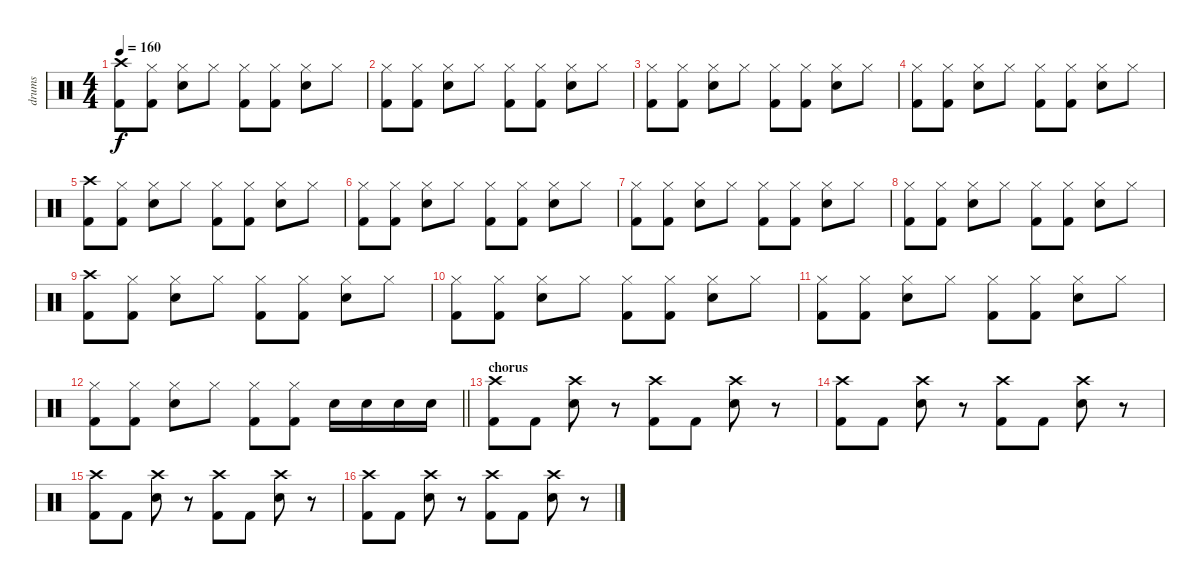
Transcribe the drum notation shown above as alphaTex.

\track ("drums" "drums") {instrument percussion}
\staff {score}
\articulation defaults
\ts (4 4)
\tempo 160
\clef neutral
\ks c
("Crash high (hit)" "Kick (hit) 2").8{dy f} ("Hi-Hat (closed)" "Kick (hit) 2").8 ("Hi-Hat (closed)" "Electric Snare (hit)").8 "Hi-Hat (closed)".8 ("Hi-Hat (closed)" "Kick (hit) 2").8 ("Hi-Hat (closed)" "Kick (hit) 2").8 ("Hi-Hat (closed)" "Electric Snare (hit)").8 "Hi-Hat (closed)".8 |
("Hi-Hat (closed)" "Kick (hit) 2").8 ("Hi-Hat (closed)" "Kick (hit) 2").8 ("Hi-Hat (closed)" "Electric Snare (hit)").8 "Hi-Hat (closed)".8 ("Hi-Hat (closed)" "Kick (hit) 2").8 ("Hi-Hat (closed)" "Kick (hit) 2").8 ("Hi-Hat (closed)" "Electric Snare (hit)").8 "Hi-Hat (closed)".8 |
("Hi-Hat (closed)" "Kick (hit) 2").8 ("Hi-Hat (closed)" "Kick (hit) 2").8 ("Hi-Hat (closed)" "Electric Snare (hit)").8 "Hi-Hat (closed)".8 ("Hi-Hat (closed)" "Kick (hit) 2").8 ("Hi-Hat (closed)" "Kick (hit) 2").8 ("Hi-Hat (closed)" "Electric Snare (hit)").8 "Hi-Hat (closed)".8 |
("Hi-Hat (closed)" "Kick (hit) 2").8 ("Hi-Hat (closed)" "Kick (hit) 2").8 ("Hi-Hat (closed)" "Electric Snare (hit)").8 "Hi-Hat (closed)".8 ("Hi-Hat (closed)" "Kick (hit) 2").8 ("Hi-Hat (closed)" "Kick (hit) 2").8 ("Hi-Hat (closed)" "Electric Snare (hit)").8 "Hi-Hat (closed)".8 |
("Crash high (hit)" "Kick (hit) 2").8 ("Hi-Hat (closed)" "Kick (hit) 2").8 ("Hi-Hat (closed)" "Electric Snare (hit)").8 "Hi-Hat (closed)".8 ("Hi-Hat (closed)" "Kick (hit) 2").8 ("Hi-Hat (closed)" "Kick (hit) 2").8 ("Hi-Hat (closed)" "Electric Snare (hit)").8 "Hi-Hat (closed)".8 |
("Hi-Hat (closed)" "Kick (hit) 2").8 ("Hi-Hat (closed)" "Kick (hit) 2").8 ("Hi-Hat (closed)" "Electric Snare (hit)").8 "Hi-Hat (closed)".8 ("Hi-Hat (closed)" "Kick (hit) 2").8 ("Hi-Hat (closed)" "Kick (hit) 2").8 ("Hi-Hat (closed)" "Electric Snare (hit)").8 "Hi-Hat (closed)".8 |
("Hi-Hat (closed)" "Kick (hit) 2").8 ("Hi-Hat (closed)" "Kick (hit) 2").8 ("Hi-Hat (closed)" "Electric Snare (hit)").8 "Hi-Hat (closed)".8 ("Hi-Hat (closed)" "Kick (hit) 2").8 ("Hi-Hat (closed)" "Kick (hit) 2").8 ("Hi-Hat (closed)" "Electric Snare (hit)").8 "Hi-Hat (closed)".8 |
("Hi-Hat (closed)" "Kick (hit) 2").8 ("Hi-Hat (closed)" "Kick (hit) 2").8 ("Hi-Hat (closed)" "Electric Snare (hit)").8 "Hi-Hat (closed)".8 ("Hi-Hat (closed)" "Kick (hit) 2").8 ("Hi-Hat (closed)" "Kick (hit) 2").8 ("Hi-Hat (closed)" "Electric Snare (hit)").8 "Hi-Hat (closed)".8 |
("Crash high (hit)" "Kick (hit) 2").8 ("Hi-Hat (closed)" "Kick (hit) 2").8 ("Hi-Hat (closed)" "Electric Snare (hit)").8 "Hi-Hat (closed)".8 ("Hi-Hat (closed)" "Kick (hit) 2").8 ("Hi-Hat (closed)" "Kick (hit) 2").8 ("Hi-Hat (closed)" "Electric Snare (hit)").8 "Hi-Hat (closed)".8 |
("Hi-Hat (closed)" "Kick (hit) 2").8 ("Hi-Hat (closed)" "Kick (hit) 2").8 ("Hi-Hat (closed)" "Electric Snare (hit)").8 "Hi-Hat (closed)".8 ("Hi-Hat (closed)" "Kick (hit) 2").8 ("Hi-Hat (closed)" "Kick (hit) 2").8 ("Hi-Hat (closed)" "Electric Snare (hit)").8 "Hi-Hat (closed)".8 |
("Hi-Hat (closed)" "Kick (hit) 2").8 ("Hi-Hat (closed)" "Kick (hit) 2").8 ("Hi-Hat (closed)" "Electric Snare (hit)").8 "Hi-Hat (closed)".8 ("Hi-Hat (closed)" "Kick (hit) 2").8 ("Hi-Hat (closed)" "Kick (hit) 2").8 ("Hi-Hat (closed)" "Electric Snare (hit)").8 "Hi-Hat (closed)".8 |
\barLineRight lightlight
("Hi-Hat (closed)" "Kick (hit) 2").8 ("Hi-Hat (closed)" "Kick (hit) 2").8 ("Hi-Hat (closed)" "Electric Snare (hit)").8 "Hi-Hat (closed)".8 ("Hi-Hat (closed)" "Kick (hit) 2").8 ("Hi-Hat (closed)" "Kick (hit) 2").8 "Electric Snare (hit)".16 "Electric Snare (hit)".16 "Electric Snare (hit)".16 "Electric Snare (hit)".16 |
\section ("" "chorus")
("Crash high (hit)" "Kick (hit) 2").8 "Kick (hit) 2".8 ("Crash high (hit)" "Electric Snare (hit)").8 r.8 ("Crash high (hit)" "Kick (hit) 2").8 "Kick (hit) 2".8 ("Crash high (hit)" "Electric Snare (hit)").8 r.8 |
("Crash high (hit)" "Kick (hit) 2").8 "Kick (hit) 2".8 ("Crash high (hit)" "Electric Snare (hit)").8 r.8 ("Crash high (hit)" "Kick (hit) 2").8 "Kick (hit) 2".8 ("Crash high (hit)" "Electric Snare (hit)").8 r.8 |
("Crash high (hit)" "Kick (hit) 2").8 "Kick (hit) 2".8 ("Crash high (hit)" "Electric Snare (hit)").8 r.8 ("Crash high (hit)" "Kick (hit) 2").8 "Kick (hit) 2".8 ("Crash high (hit)" "Electric Snare (hit)").8 r.8 |
("Crash high (hit)" "Kick (hit) 2").8 "Kick (hit) 2".8 ("Crash high (hit)" "Electric Snare (hit)").8 r.8 ("Crash high (hit)" "Kick (hit) 2").8 "Kick (hit) 2".8 ("Crash high (hit)" "Electric Snare (hit)").8 r.8
